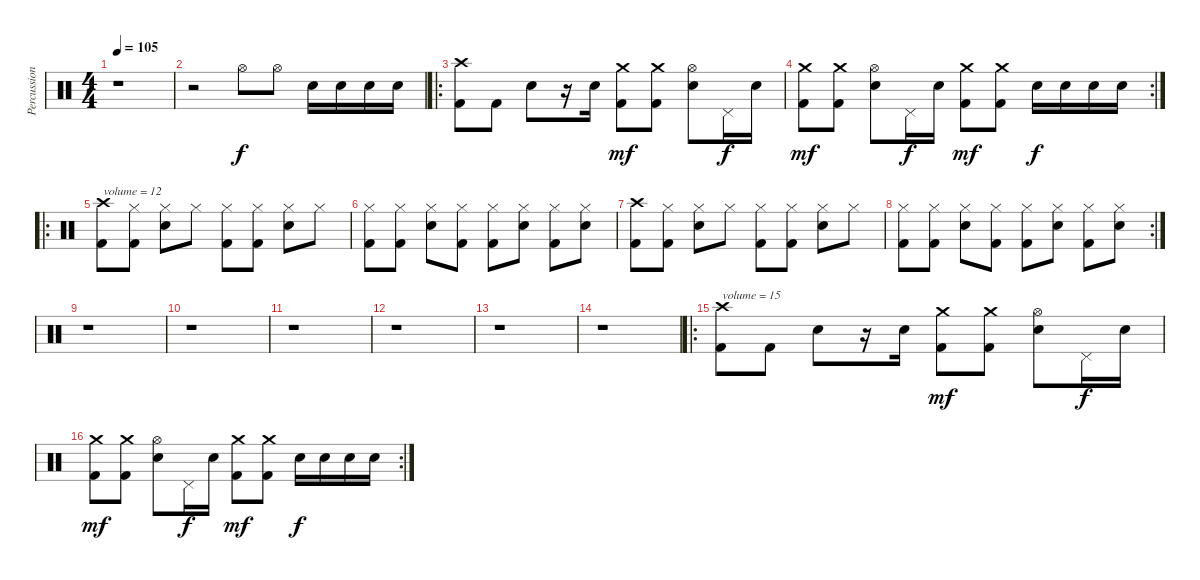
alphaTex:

\track ("Percussions" "Percussion") {instrument percussion}
\staff {score}
\articulation defaults
\ts (4 4)
\tempo 105
\clef neutral
\ks c
r.1{dy f} |
r.2 "Hi-Hat (open)".8 "Hi-Hat (open)".8 "Electric Snare (hit)".16 "Electric Snare (hit)".16 "Electric Snare (hit)".16 "Electric Snare (hit)".16 |
\ro
("Crash high (hit)" "Kick (hit) 2").8 "Kick (hit) 2".8 "Electric Snare (hit)".8 r.16 "Electric Snare (hit)".16 ("Crash medium (hit)" "Kick (hit) 2").8{dy mf} ("Crash medium (hit)" "Kick (hit) 2").8 ("Hi-Hat (open)" "Electric Snare (hit)").8 "Pedal Hi-Hat (hit)".16{dy f} "Electric Snare (hit)".16 |
\rc 2
("Crash medium (hit)" "Kick (hit) 2").8{dy mf} ("Crash medium (hit)" "Kick (hit) 2").8 ("Hi-Hat (open)" "Electric Snare (hit)").8 "Pedal Hi-Hat (hit)".16{dy f} "Electric Snare (hit)".16 ("Crash medium (hit)" "Kick (hit) 2").8{dy mf} ("Crash medium (hit)" "Kick (hit) 2").8 "Electric Snare (hit)".16{dy f} "Electric Snare (hit)".16 "Electric Snare (hit)".16 "Electric Snare (hit)".16 |
\ro
("Crash high (hit)" "Kick (hit) 2").8{txt "volume = 12" volume 12} ("Hi-Hat (closed)" "Kick (hit) 2").8 ("Hi-Hat (closed)" "Electric Snare (hit)").8 "Hi-Hat (closed)".8 ("Hi-Hat (closed)" "Kick (hit) 2").8 ("Hi-Hat (closed)" "Kick (hit) 2").8 ("Hi-Hat (closed)" "Electric Snare (hit)").8 "Hi-Hat (closed)".8 |
("Hi-Hat (closed)" "Kick (hit) 2").8 ("Hi-Hat (closed)" "Kick (hit) 2").8 ("Hi-Hat (closed)" "Electric Snare (hit)").8 ("Hi-Hat (closed)" "Kick (hit) 2").8 ("Hi-Hat (closed)" "Kick (hit) 2").8 ("Hi-Hat (closed)" "Electric Snare (hit)").8 ("Hi-Hat (closed)" "Kick (hit) 2").8 ("Hi-Hat (closed)" "Electric Snare (hit)").8 |
("Crash high (hit)" "Kick (hit) 2").8 ("Hi-Hat (closed)" "Kick (hit) 2").8 ("Hi-Hat (closed)" "Electric Snare (hit)").8 "Hi-Hat (closed)".8 ("Hi-Hat (closed)" "Kick (hit) 2").8 ("Hi-Hat (closed)" "Kick (hit) 2").8 ("Hi-Hat (closed)" "Electric Snare (hit)").8 "Hi-Hat (closed)".8 |
\rc 2
("Hi-Hat (closed)" "Kick (hit) 2").8 ("Hi-Hat (closed)" "Kick (hit) 2").8 ("Hi-Hat (closed)" "Electric Snare (hit)").8 ("Hi-Hat (closed)" "Kick (hit) 2").8 ("Hi-Hat (closed)" "Kick (hit) 2").8 ("Hi-Hat (closed)" "Electric Snare (hit)").8 ("Hi-Hat (closed)" "Kick (hit) 2").8 ("Hi-Hat (closed)" "Electric Snare (hit)").8 |
r.1 |
r.1 |
r.1 |
r.1 |
r.1 |
r.1 |
\ro
("Crash high (hit)" "Kick (hit) 2").8{txt "volume = 15" volume 15} "Kick (hit) 2".8 "Electric Snare (hit)".8 r.16 "Electric Snare (hit)".16 ("Crash medium (hit)" "Kick (hit) 2").8{dy mf} ("Crash medium (hit)" "Kick (hit) 2").8 ("Hi-Hat (open)" "Electric Snare (hit)").8 "Pedal Hi-Hat (hit)".16{dy f} "Electric Snare (hit)".16 |
\rc 2
("Crash medium (hit)" "Kick (hit) 2").8{dy mf} ("Crash medium (hit)" "Kick (hit) 2").8 ("Hi-Hat (open)" "Electric Snare (hit)").8 "Pedal Hi-Hat (hit)".16{dy f} "Electric Snare (hit)".16 ("Crash medium (hit)" "Kick (hit) 2").8{dy mf} ("Crash medium (hit)" "Kick (hit) 2").8 "Electric Snare (hit)".16{dy f} "Electric Snare (hit)".16 "Electric Snare (hit)".16 "Electric Snare (hit)".16
